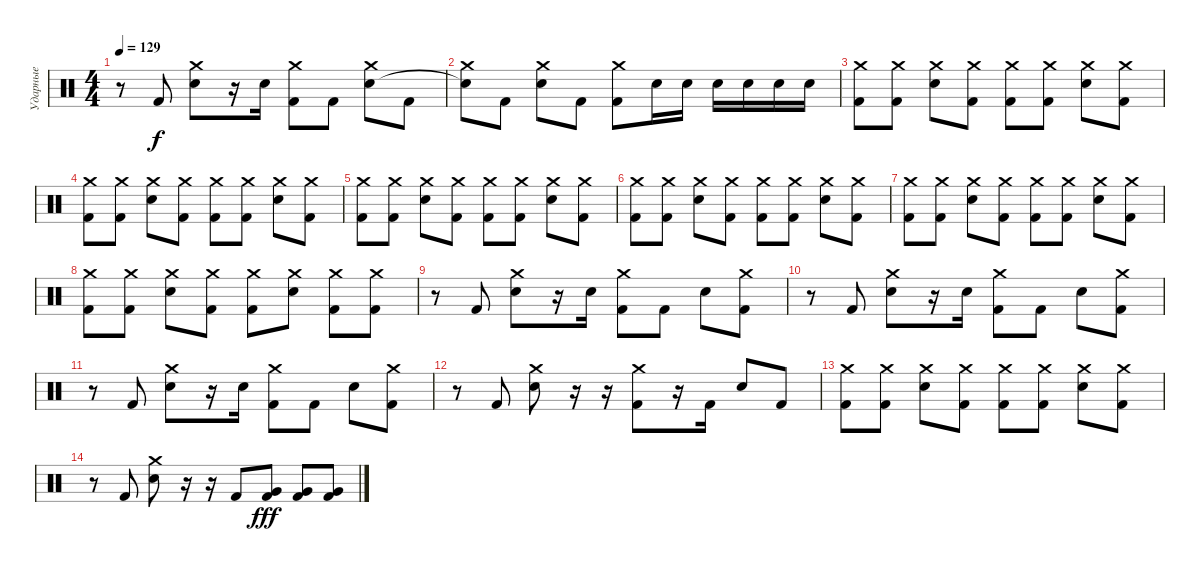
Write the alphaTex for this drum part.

\track ("Ударные" "Ударные") {instrument percussion}
\staff {score}
\articulation defaults
\ts (4 4)
\tempo 129
\clef neutral
\ks c
r.8{dy f} "Kick (hit) 2".8 ("Crash medium (hit)" "Electric Snare (hit)").8 r.16 "Electric Snare (hit)".16 ("Crash medium (hit)" "Kick (hit) 2").8 "Kick (hit) 2".8 ("Crash medium (hit)" "Electric Snare (hit)").8 "Kick (hit) 2".8 |
("Crash medium (hit)" "Snare (hit)"{t}).8 "Kick (hit) 2".8 ("Crash medium (hit)" "Electric Snare (hit)").8 "Kick (hit) 2".8 ("Crash medium (hit)" "Kick (hit) 2").8 "Electric Snare (hit)".16 "Electric Snare (hit)".16 "Electric Snare (hit)".16 "Electric Snare (hit)".16 "Electric Snare (hit)".16 "Electric Snare (hit)".16 |
("Crash medium (hit)" "Kick (hit) 2").8 ("Crash medium (hit)" "Kick (hit) 2").8 ("Crash medium (hit)" "Electric Snare (hit)").8 ("Crash medium (hit)" "Kick (hit) 2").8 ("Crash medium (hit)" "Kick (hit) 2").8 ("Crash medium (hit)" "Kick (hit) 2").8 ("Crash medium (hit)" "Electric Snare (hit)").8 ("Crash medium (hit)" "Kick (hit) 2").8 |
("Crash medium (hit)" "Kick (hit) 2").8 ("Crash medium (hit)" "Kick (hit) 2").8 ("Crash medium (hit)" "Electric Snare (hit)").8 ("Crash medium (hit)" "Kick (hit) 2").8 ("Crash medium (hit)" "Kick (hit) 2").8 ("Crash medium (hit)" "Kick (hit) 2").8 ("Crash medium (hit)" "Electric Snare (hit)").8 ("Crash medium (hit)" "Kick (hit) 2").8 |
("Crash medium (hit)" "Kick (hit) 2").8 ("Crash medium (hit)" "Kick (hit) 2").8 ("Crash medium (hit)" "Electric Snare (hit)").8 ("Crash medium (hit)" "Kick (hit) 2").8 ("Crash medium (hit)" "Kick (hit) 2").8 ("Crash medium (hit)" "Kick (hit) 2").8 ("Crash medium (hit)" "Electric Snare (hit)").8 ("Crash medium (hit)" "Kick (hit) 2").8 |
("Crash medium (hit)" "Kick (hit) 2").8 ("Crash medium (hit)" "Kick (hit) 2").8 ("Crash medium (hit)" "Electric Snare (hit)").8 ("Crash medium (hit)" "Kick (hit) 2").8 ("Crash medium (hit)" "Kick (hit) 2").8 ("Crash medium (hit)" "Kick (hit) 2").8 ("Crash medium (hit)" "Electric Snare (hit)").8 ("Crash medium (hit)" "Kick (hit) 2").8 |
("Crash medium (hit)" "Kick (hit) 2").8 ("Crash medium (hit)" "Kick (hit) 2").8 ("Crash medium (hit)" "Electric Snare (hit)").8 ("Crash medium (hit)" "Kick (hit) 2").8 ("Crash medium (hit)" "Kick (hit) 2").8 ("Crash medium (hit)" "Kick (hit) 2").8 ("Crash medium (hit)" "Electric Snare (hit)").8 ("Crash medium (hit)" "Kick (hit) 2").8 |
("Crash medium (hit)" "Kick (hit) 2").8 ("Crash medium (hit)" "Kick (hit) 2").8 ("Crash medium (hit)" "Electric Snare (hit)").8 ("Crash medium (hit)" "Kick (hit) 2").8 ("Crash medium (hit)" "Kick (hit) 2").8 ("Crash medium (hit)" "Electric Snare (hit)").8 ("Crash medium (hit)" "Kick (hit) 2").8 ("Crash medium (hit)" "Kick (hit) 2").8 |
r.8 "Kick (hit) 2".8 ("Crash medium (hit)" "Electric Snare (hit)").8 r.16 "Electric Snare (hit)".16 ("Crash medium (hit)" "Kick (hit) 2").8 "Kick (hit) 2".8 "Electric Snare (hit)".8 ("Crash medium (hit)" "Kick (hit) 2").8 |
r.8 "Kick (hit) 2".8 ("Crash medium (hit)" "Electric Snare (hit)").8 r.16 "Electric Snare (hit)".16 ("Crash medium (hit)" "Kick (hit) 2").8 "Kick (hit) 2".8 "Electric Snare (hit)".8 ("Crash medium (hit)" "Kick (hit) 2").8 |
r.8 "Kick (hit) 2".8 ("Crash medium (hit)" "Electric Snare (hit)").8 r.16 "Electric Snare (hit)".16 ("Crash medium (hit)" "Kick (hit) 2").8 "Kick (hit) 2".8 "Electric Snare (hit)".8 ("Crash medium (hit)" "Kick (hit) 2").8 |
r.8 "Kick (hit) 2".8 ("Crash medium (hit)" "Electric Snare (hit)").8 r.16 r.16 ("Crash medium (hit)" "Kick (hit) 2").8 r.16 "Kick (hit) 2".16 "Electric Snare (hit)".8 "Kick (hit) 2".8 |
("Crash medium (hit)" "Kick (hit) 2").8 ("Crash medium (hit)" "Kick (hit) 2").8 ("Crash medium (hit)" "Electric Snare (hit)").8 ("Crash medium (hit)" "Kick (hit) 2").8 ("Crash medium (hit)" "Kick (hit) 2").8 ("Crash medium (hit)" "Kick (hit) 2").8 ("Crash medium (hit)" "Electric Snare (hit)").8 ("Crash medium (hit)" "Kick (hit) 2").8 |
r.8 "Kick (hit) 2".8 ("Crash medium (hit)" "Electric Snare (hit)").8 r.16 r.16 "Kick (hit) 2".8 ("Very Low Tom (hit)" "Kick (hit) 2").8{dy fff} ("Very Low Tom (hit)" "Kick (hit) 2").8 ("Very Low Tom (hit)" "Kick (hit) 2").8
